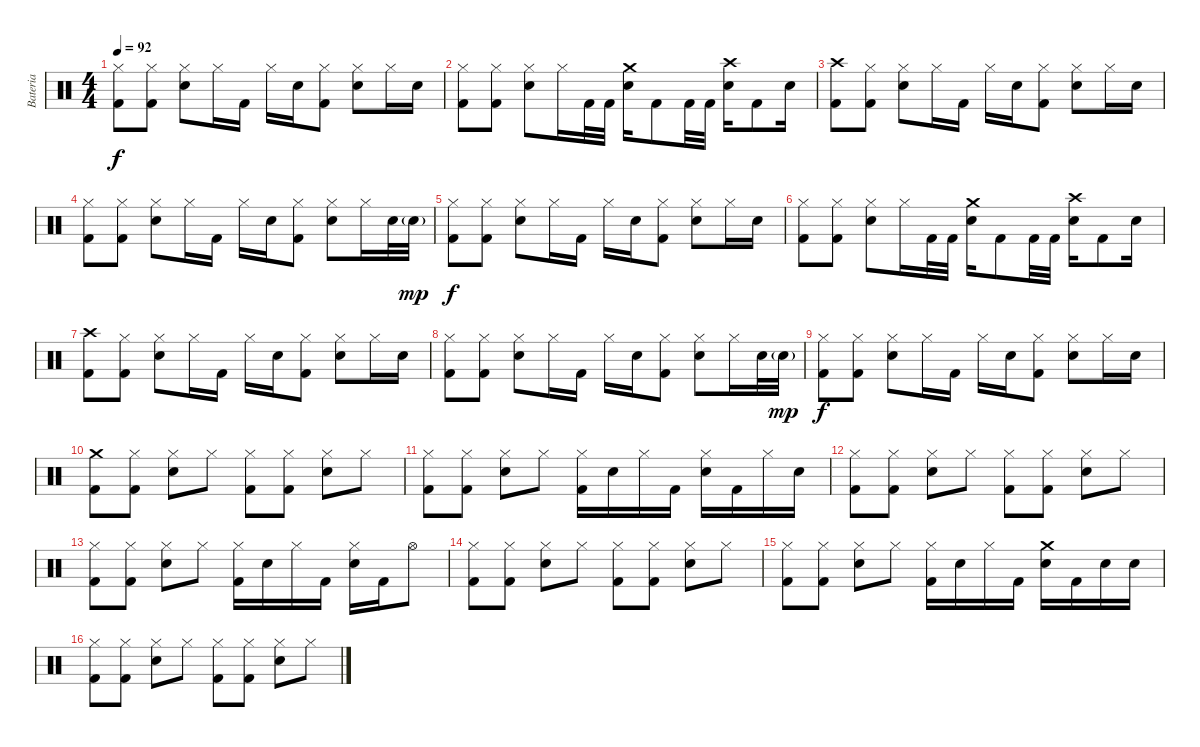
\track ("Bateria" "Bateria") {instrument percussion}
\staff {score}
\articulation defaults
\ts (4 4)
\tempo 92
\clef neutral
\ks c
("Hi-Hat (closed)" "Kick (hit) 2").8{dy f} ("Hi-Hat (closed)" "Kick (hit) 2").8 ("Electric Snare (hit)" "Hi-Hat (closed)").8 "Hi-Hat (closed)".16 "Kick (hit) 2".16 "Hi-Hat (closed)".16 "Electric Snare (hit)".16 ("Hi-Hat (closed)" "Kick (hit) 2").8 ("Electric Snare (hit)" "Hi-Hat (closed)").8 "Hi-Hat (closed)".16 "Electric Snare (hit)".16 |
("Hi-Hat (closed)" "Kick (hit) 2").8 ("Hi-Hat (closed)" "Kick (hit) 2").8 ("Electric Snare (hit)" "Hi-Hat (closed)").8 "Hi-Hat (closed)".16 "Kick (hit) 2".32 "Kick (hit) 2".32 ("Crash medium (hit)" "Electric Snare (hit)").16 "Kick (hit) 2".8 "Kick (hit) 2".32 "Kick (hit) 2".32 ("Crash high (hit)" "Electric Snare (hit)").16 "Kick (hit) 2".8 "Electric Snare (hit)".16 |
("Crash high (hit)" "Kick (hit) 2").8 ("Hi-Hat (closed)" "Kick (hit) 2").8 ("Electric Snare (hit)" "Hi-Hat (closed)").8 "Hi-Hat (closed)".16 "Kick (hit) 2".16 "Hi-Hat (closed)".16 "Electric Snare (hit)".16 ("Hi-Hat (closed)" "Kick (hit) 2").8 ("Electric Snare (hit)" "Hi-Hat (closed)").8 "Hi-Hat (closed)".16 "Electric Snare (hit)".16 |
("Hi-Hat (closed)" "Kick (hit) 2").8 ("Hi-Hat (closed)" "Kick (hit) 2").8 ("Electric Snare (hit)" "Hi-Hat (closed)").8 "Hi-Hat (closed)".16 "Kick (hit) 2".16 "Hi-Hat (closed)".16 "Electric Snare (hit)".16 ("Hi-Hat (closed)" "Kick (hit) 2").8 ("Electric Snare (hit)" "Hi-Hat (closed)").8 "Hi-Hat (closed)".16 "Electric Snare (hit)".32 "Electric Snare (hit)"{g}.32{dy mp} |
("Hi-Hat (closed)" "Kick (hit) 2").8{dy f} ("Hi-Hat (closed)" "Kick (hit) 2").8 ("Electric Snare (hit)" "Hi-Hat (closed)").8 "Hi-Hat (closed)".16 "Kick (hit) 2".16 "Hi-Hat (closed)".16 "Electric Snare (hit)".16 ("Hi-Hat (closed)" "Kick (hit) 2").8 ("Electric Snare (hit)" "Hi-Hat (closed)").8 "Hi-Hat (closed)".16 "Electric Snare (hit)".16 |
("Hi-Hat (closed)" "Kick (hit) 2").8 ("Hi-Hat (closed)" "Kick (hit) 2").8 ("Electric Snare (hit)" "Hi-Hat (closed)").8 "Hi-Hat (closed)".16 "Kick (hit) 2".32 "Kick (hit) 2".32 ("Crash medium (hit)" "Electric Snare (hit)").16 "Kick (hit) 2".8 "Kick (hit) 2".32 "Kick (hit) 2".32 ("Crash high (hit)" "Electric Snare (hit)").16 "Kick (hit) 2".8 "Electric Snare (hit)".16 |
("Crash high (hit)" "Kick (hit) 2").8 ("Hi-Hat (closed)" "Kick (hit) 2").8 ("Electric Snare (hit)" "Hi-Hat (closed)").8 "Hi-Hat (closed)".16 "Kick (hit) 2".16 "Hi-Hat (closed)".16 "Electric Snare (hit)".16 ("Hi-Hat (closed)" "Kick (hit) 2").8 ("Electric Snare (hit)" "Hi-Hat (closed)").8 "Hi-Hat (closed)".16 "Electric Snare (hit)".16 |
("Hi-Hat (closed)" "Kick (hit) 2").8 ("Hi-Hat (closed)" "Kick (hit) 2").8 ("Electric Snare (hit)" "Hi-Hat (closed)").8 "Hi-Hat (closed)".16 "Kick (hit) 2".16 "Hi-Hat (closed)".16 "Electric Snare (hit)".16 ("Hi-Hat (closed)" "Kick (hit) 2").8 ("Electric Snare (hit)" "Hi-Hat (closed)").8 "Hi-Hat (closed)".16 "Electric Snare (hit)".32 "Electric Snare (hit)"{g}.32{dy mp} |
("Hi-Hat (closed)" "Kick (hit) 2").8{dy f} ("Hi-Hat (closed)" "Kick (hit) 2").8 ("Electric Snare (hit)" "Hi-Hat (closed)").8 "Hi-Hat (closed)".16 "Kick (hit) 2".16 "Hi-Hat (closed)".16 "Electric Snare (hit)".16 ("Hi-Hat (closed)" "Kick (hit) 2").8 ("Electric Snare (hit)" "Hi-Hat (closed)").8 "Hi-Hat (closed)".16 "Electric Snare (hit)".16 |
("Crash medium (hit)" "Kick (hit) 2").8 ("Hi-Hat (closed)" "Kick (hit) 2").8 ("Electric Snare (hit)" "Hi-Hat (closed)").8 "Hi-Hat (closed)".8 ("Hi-Hat (closed)" "Kick (hit) 2").8 ("Hi-Hat (closed)" "Kick (hit) 2").8 ("Electric Snare (hit)" "Hi-Hat (closed)").8 "Hi-Hat (closed)".8 |
("Hi-Hat (closed)" "Kick (hit) 2").8 ("Hi-Hat (closed)" "Kick (hit) 2").8 ("Electric Snare (hit)" "Hi-Hat (closed)").8 "Hi-Hat (closed)".8 ("Hi-Hat (closed)" "Kick (hit) 2").16 "Electric Snare (hit)".16 "Hi-Hat (closed)".16 "Kick (hit) 2".16 ("Electric Snare (hit)" "Hi-Hat (closed)").16 "Kick (hit) 2".16 "Hi-Hat (closed)".16 "Electric Snare (hit)".16 |
("Hi-Hat (closed)" "Kick (hit) 2").8 ("Hi-Hat (closed)" "Kick (hit) 2").8 ("Electric Snare (hit)" "Hi-Hat (closed)").8 "Hi-Hat (closed)".8 ("Hi-Hat (closed)" "Kick (hit) 2").8 ("Hi-Hat (closed)" "Kick (hit) 2").8 ("Electric Snare (hit)" "Hi-Hat (closed)").8 "Hi-Hat (closed)".8 |
("Hi-Hat (closed)" "Kick (hit) 2").8 ("Hi-Hat (closed)" "Kick (hit) 2").8 ("Electric Snare (hit)" "Hi-Hat (closed)").8 "Hi-Hat (closed)".8 ("Hi-Hat (closed)" "Kick (hit) 2").16 "Electric Snare (hit)".16 "Hi-Hat (closed)".16 "Kick (hit) 2".16 ("Electric Snare (hit)" "Hi-Hat (closed)").16 "Kick (hit) 2".16 "Hi-Hat (open)".8 |
("Hi-Hat (closed)" "Kick (hit) 2").8 ("Hi-Hat (closed)" "Kick (hit) 2").8 ("Electric Snare (hit)" "Hi-Hat (closed)").8 "Hi-Hat (closed)".8 ("Hi-Hat (closed)" "Kick (hit) 2").8 ("Hi-Hat (closed)" "Kick (hit) 2").8 ("Electric Snare (hit)" "Hi-Hat (closed)").8 "Hi-Hat (closed)".8 |
("Hi-Hat (closed)" "Kick (hit) 2").8 ("Hi-Hat (closed)" "Kick (hit) 2").8 ("Electric Snare (hit)" "Hi-Hat (closed)").8 "Hi-Hat (closed)".8 ("Hi-Hat (closed)" "Kick (hit) 2").16 "Electric Snare (hit)".16 "Hi-Hat (closed)".16 "Kick (hit) 2".16 ("Crash medium (hit)" "Electric Snare (hit)").16 "Kick (hit) 2".16 "Electric Snare (hit)".16 "Electric Snare (hit)".16 |
("Hi-Hat (closed)" "Kick (hit) 2").8 ("Hi-Hat (closed)" "Kick (hit) 2").8 ("Electric Snare (hit)" "Hi-Hat (closed)").8 "Hi-Hat (closed)".8 ("Hi-Hat (closed)" "Kick (hit) 2").8 ("Hi-Hat (closed)" "Kick (hit) 2").8 ("Electric Snare (hit)" "Hi-Hat (closed)").8 "Hi-Hat (closed)".8
